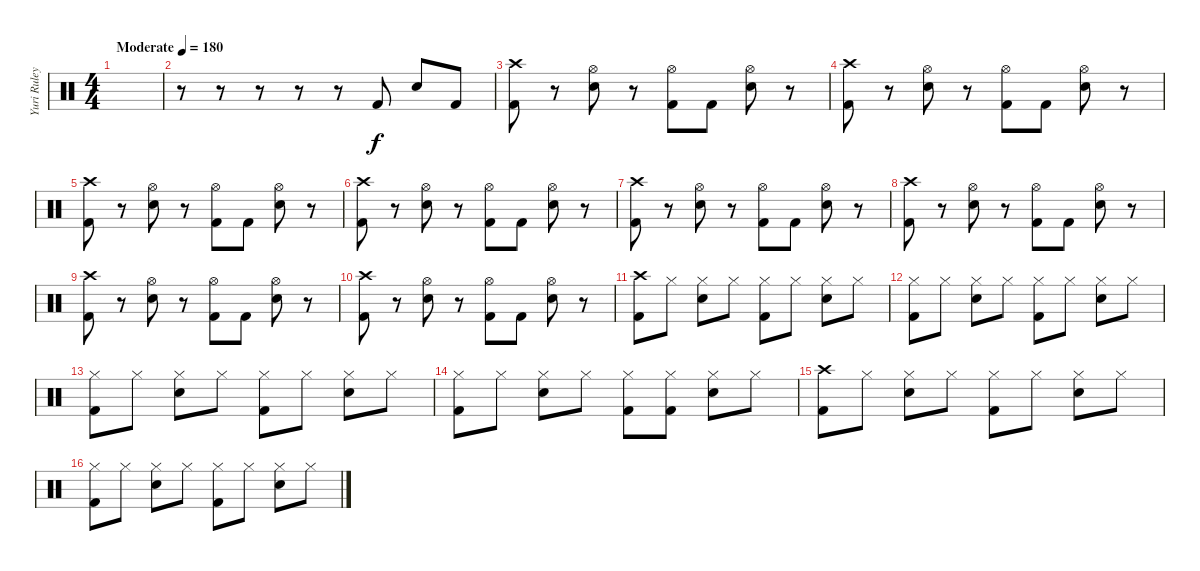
\track ("Yuri Ruley [Drums]" "Yuri Ruley") {instrument percussion}
\staff {score}
\articulation defaults
\ts (4 4)
\tempo (180 "Moderate")
\clef neutral
\ks c
|
r.8 r.8 r.8 r.8 r.8 "Kick (hit) 2".8 "Snare (hit) 2".8 "Kick (hit) 2".8 |
("Crash high (hit)" "Kick (hit) 2").8 r.8 ("Hi-Hat (open)" "Snare (hit) 2").8 r.8 ("Hi-Hat (open)" "Kick (hit) 2").8 "Kick (hit) 2".8 ("Hi-Hat (open)" "Snare (hit) 2").8 r.8 |
("Crash high (hit)" "Kick (hit) 2").8 r.8 ("Hi-Hat (open)" "Snare (hit) 2").8 r.8 ("Hi-Hat (open)" "Kick (hit) 2").8 "Kick (hit) 2".8 ("Hi-Hat (open)" "Snare (hit) 2").8 r.8 |
("Crash high (hit)" "Kick (hit) 2").8 r.8 ("Hi-Hat (open)" "Snare (hit) 2").8 r.8 ("Hi-Hat (open)" "Kick (hit) 2").8 "Kick (hit) 2".8 ("Hi-Hat (open)" "Snare (hit) 2").8 r.8 |
("Crash high (hit)" "Kick (hit) 2").8 r.8 ("Hi-Hat (open)" "Snare (hit) 2").8 r.8 ("Hi-Hat (open)" "Kick (hit) 2").8 "Kick (hit) 2".8 ("Hi-Hat (open)" "Snare (hit) 2").8 r.8 |
("Crash high (hit)" "Kick (hit) 2").8 r.8 ("Hi-Hat (open)" "Snare (hit) 2").8 r.8 ("Hi-Hat (open)" "Kick (hit) 2").8 "Kick (hit) 2".8 ("Hi-Hat (open)" "Snare (hit) 2").8 r.8 |
("Crash high (hit)" "Kick (hit) 2").8 r.8 ("Hi-Hat (open)" "Snare (hit) 2").8 r.8 ("Hi-Hat (open)" "Kick (hit) 2").8 "Kick (hit) 2".8 ("Hi-Hat (open)" "Snare (hit) 2").8 r.8 |
("Crash high (hit)" "Kick (hit) 2").8 r.8 ("Hi-Hat (open)" "Snare (hit) 2").8 r.8 ("Hi-Hat (open)" "Kick (hit) 2").8 "Kick (hit) 2".8 ("Hi-Hat (open)" "Snare (hit) 2").8 r.8 |
("Crash high (hit)" "Kick (hit) 2").8 r.8 ("Hi-Hat (open)" "Snare (hit) 2").8 r.8 ("Hi-Hat (open)" "Kick (hit) 2").8 "Kick (hit) 2".8 ("Hi-Hat (open)" "Snare (hit) 2").8 r.8 |
("Crash high (hit)" "Kick (hit) 2").8 "Hi-Hat (closed)".8 ("Hi-Hat (closed)" "Snare (hit) 2").8 "Hi-Hat (closed)".8 ("Hi-Hat (closed)" "Kick (hit) 2").8 "Hi-Hat (closed)".8 ("Hi-Hat (closed)" "Snare (hit) 2").8 "Hi-Hat (closed)".8 |
("Hi-Hat (closed)" "Kick (hit) 2").8 "Hi-Hat (closed)".8 ("Hi-Hat (closed)" "Snare (hit) 2").8 "Hi-Hat (closed)".8 ("Hi-Hat (closed)" "Kick (hit) 2").8 "Hi-Hat (closed)".8 ("Hi-Hat (closed)" "Snare (hit) 2").8 "Hi-Hat (closed)".8 |
("Hi-Hat (closed)" "Kick (hit) 2").8 "Hi-Hat (closed)".8 ("Hi-Hat (closed)" "Snare (hit) 2").8 "Hi-Hat (closed)".8 ("Hi-Hat (closed)" "Kick (hit) 2").8 "Hi-Hat (closed)".8 ("Hi-Hat (closed)" "Snare (hit) 2").8 "Hi-Hat (closed)".8 |
("Hi-Hat (closed)" "Kick (hit) 2").8 "Hi-Hat (closed)".8 ("Hi-Hat (closed)" "Snare (hit) 2").8 "Hi-Hat (closed)".8 ("Hi-Hat (closed)" "Kick (hit) 2").8 ("Hi-Hat (closed)" "Kick (hit) 2").8 ("Hi-Hat (closed)" "Snare (hit) 2").8 "Hi-Hat (closed)".8 |
("Crash high (hit)" "Kick (hit) 2").8 "Hi-Hat (closed)".8 ("Hi-Hat (closed)" "Snare (hit) 2").8 "Hi-Hat (closed)".8 ("Hi-Hat (closed)" "Kick (hit) 2").8 "Hi-Hat (closed)".8 ("Hi-Hat (closed)" "Snare (hit) 2").8 "Hi-Hat (closed)".8 |
("Hi-Hat (closed)" "Kick (hit) 2").8 "Hi-Hat (closed)".8 ("Hi-Hat (closed)" "Snare (hit) 2").8 "Hi-Hat (closed)".8 ("Hi-Hat (closed)" "Kick (hit) 2").8 "Hi-Hat (closed)".8 ("Hi-Hat (closed)" "Snare (hit) 2").8 "Hi-Hat (closed)".8
